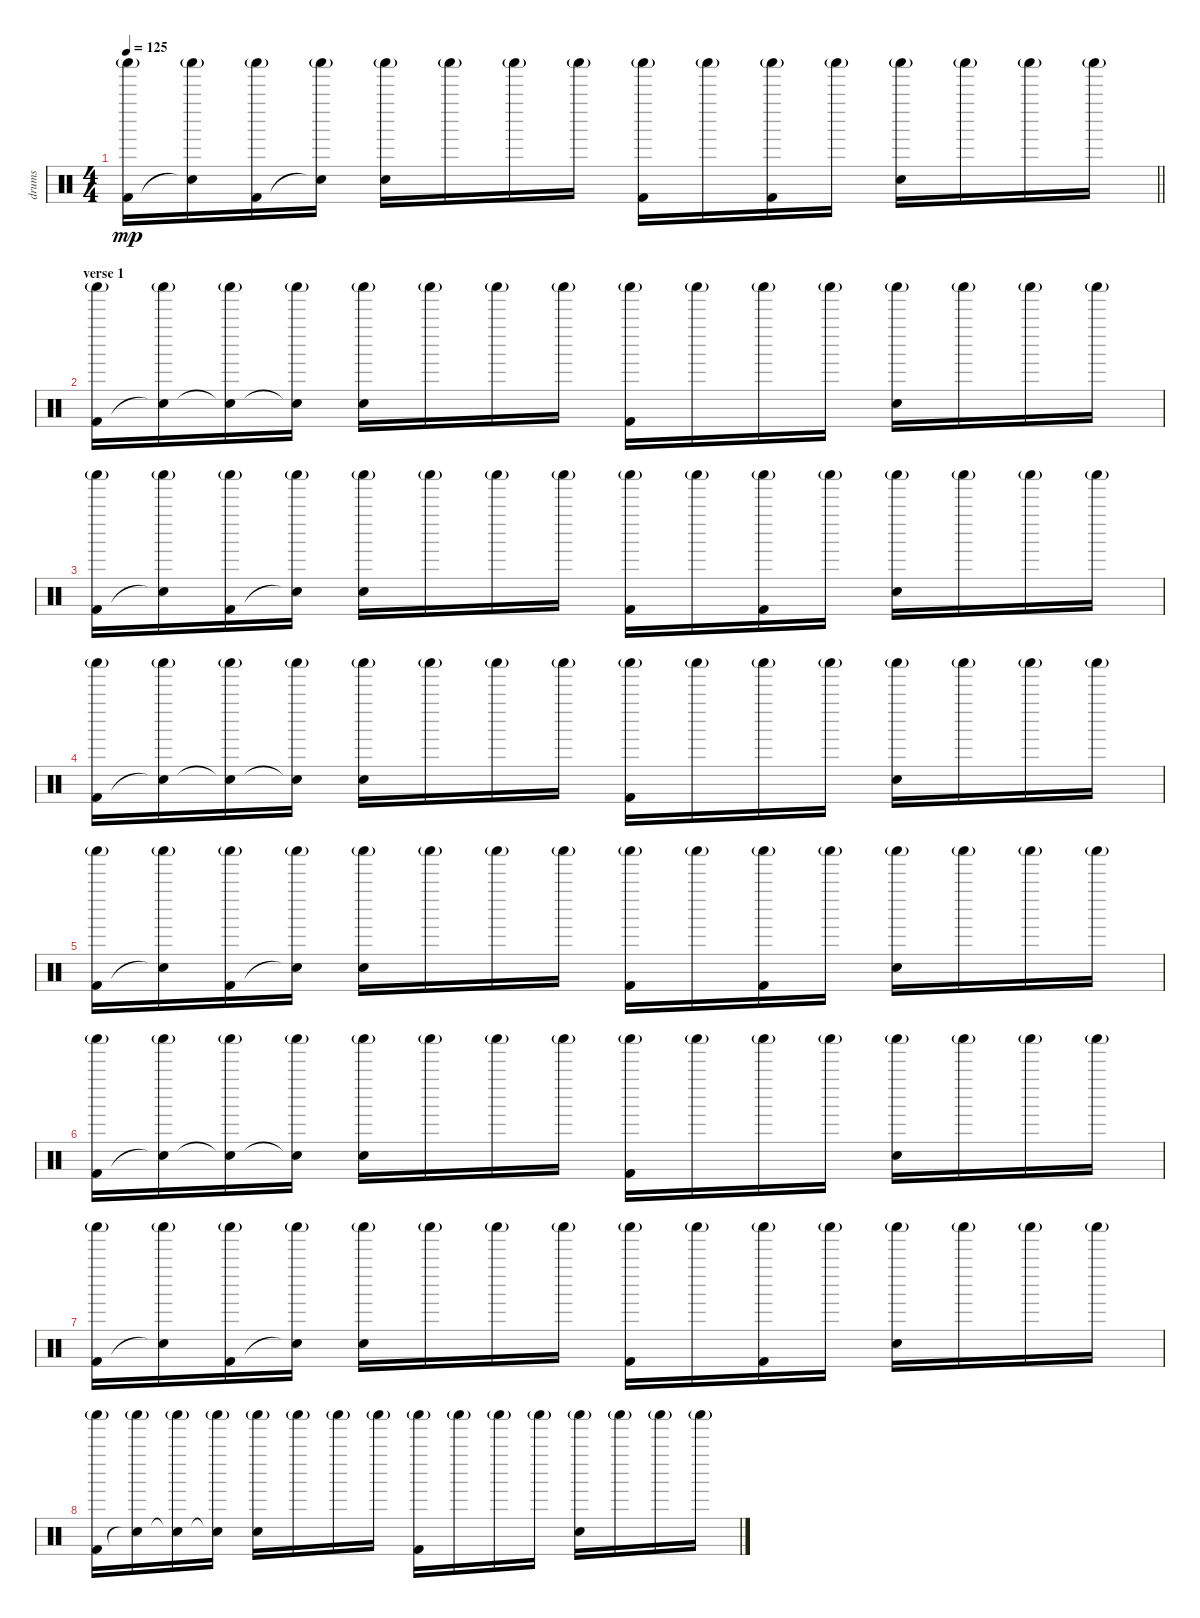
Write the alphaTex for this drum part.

\track ("drums" "drums") {instrument percussion}
\staff {score}
\articulation defaults
\ts (4 4)
\tempo 125
\clef neutral
\barLineRight lightlight
\ks c
("Shaker (hit)"{g} "Kick (hit) 2").16{dy mp} ("Shaker (hit)"{g} "Snare (hit)"{t}).16 ("Shaker (hit)"{g} "Kick (hit) 2").16 ("Shaker (hit)"{g} "Snare (hit)"{t}).16 ("Shaker (hit)"{g} "Snare (hit) 2").16 "Shaker (hit)"{g}.16 "Shaker (hit)"{g}.16 "Shaker (hit)"{g}.16 ("Shaker (hit)"{g} "Kick (hit) 2").16 "Shaker (hit)"{g}.16 ("Shaker (hit)"{g} "Kick (hit) 2").16 "Shaker (hit)"{g}.16 ("Shaker (hit)"{g} "Snare (hit) 2").16 "Shaker (hit)"{g}.16 "Shaker (hit)"{g}.16 "Shaker (hit)"{g}.16 |
\section ("" "verse 1")
("Shaker (hit)"{g} "Kick (hit) 2").16 ("Shaker (hit)"{g} "Snare (hit)"{t}).16 ("Shaker (hit)"{g} "Snare (hit)"{t}).16 ("Shaker (hit)"{g} "Snare (hit)"{t}).16 ("Shaker (hit)"{g} "Snare (hit) 2").16 "Shaker (hit)"{g}.16 "Shaker (hit)"{g}.16 "Shaker (hit)"{g}.16 ("Shaker (hit)"{g} "Kick (hit) 2").16 "Shaker (hit)"{g}.16 "Shaker (hit)"{g}.16 "Shaker (hit)"{g}.16 ("Shaker (hit)"{g} "Snare (hit) 2").16 "Shaker (hit)"{g}.16 "Shaker (hit)"{g}.16 "Shaker (hit)"{g}.16 |
("Shaker (hit)"{g} "Kick (hit) 2").16 ("Shaker (hit)"{g} "Snare (hit)"{t}).16 ("Shaker (hit)"{g} "Kick (hit) 2").16 ("Shaker (hit)"{g} "Snare (hit)"{t}).16 ("Shaker (hit)"{g} "Snare (hit) 2").16 "Shaker (hit)"{g}.16 "Shaker (hit)"{g}.16 "Shaker (hit)"{g}.16 ("Shaker (hit)"{g} "Kick (hit) 2").16 "Shaker (hit)"{g}.16 ("Shaker (hit)"{g} "Kick (hit) 2").16 "Shaker (hit)"{g}.16 ("Shaker (hit)"{g} "Snare (hit) 2").16 "Shaker (hit)"{g}.16 "Shaker (hit)"{g}.16 "Shaker (hit)"{g}.16 |
("Shaker (hit)"{g} "Kick (hit) 2").16 ("Shaker (hit)"{g} "Snare (hit)"{t}).16 ("Shaker (hit)"{g} "Snare (hit)"{t}).16 ("Shaker (hit)"{g} "Snare (hit)"{t}).16 ("Shaker (hit)"{g} "Snare (hit) 2").16 "Shaker (hit)"{g}.16 "Shaker (hit)"{g}.16 "Shaker (hit)"{g}.16 ("Shaker (hit)"{g} "Kick (hit) 2").16 "Shaker (hit)"{g}.16 "Shaker (hit)"{g}.16 "Shaker (hit)"{g}.16 ("Shaker (hit)"{g} "Snare (hit) 2").16 "Shaker (hit)"{g}.16 "Shaker (hit)"{g}.16 "Shaker (hit)"{g}.16 |
("Shaker (hit)"{g} "Kick (hit) 2").16 ("Shaker (hit)"{g} "Snare (hit)"{t}).16 ("Shaker (hit)"{g} "Kick (hit) 2").16 ("Shaker (hit)"{g} "Snare (hit)"{t}).16 ("Shaker (hit)"{g} "Snare (hit) 2").16 "Shaker (hit)"{g}.16 "Shaker (hit)"{g}.16 "Shaker (hit)"{g}.16 ("Shaker (hit)"{g} "Kick (hit) 2").16 "Shaker (hit)"{g}.16 ("Shaker (hit)"{g} "Kick (hit) 2").16 "Shaker (hit)"{g}.16 ("Shaker (hit)"{g} "Snare (hit) 2").16 "Shaker (hit)"{g}.16 "Shaker (hit)"{g}.16 "Shaker (hit)"{g}.16 |
("Shaker (hit)"{g} "Kick (hit) 2").16 ("Shaker (hit)"{g} "Snare (hit)"{t}).16 ("Shaker (hit)"{g} "Snare (hit)"{t}).16 ("Shaker (hit)"{g} "Snare (hit)"{t}).16 ("Shaker (hit)"{g} "Snare (hit) 2").16 "Shaker (hit)"{g}.16 "Shaker (hit)"{g}.16 "Shaker (hit)"{g}.16 ("Shaker (hit)"{g} "Kick (hit) 2").16 "Shaker (hit)"{g}.16 "Shaker (hit)"{g}.16 "Shaker (hit)"{g}.16 ("Shaker (hit)"{g} "Snare (hit) 2").16 "Shaker (hit)"{g}.16 "Shaker (hit)"{g}.16 "Shaker (hit)"{g}.16 |
("Shaker (hit)"{g} "Kick (hit) 2").16 ("Shaker (hit)"{g} "Snare (hit)"{t}).16 ("Shaker (hit)"{g} "Kick (hit) 2").16 ("Shaker (hit)"{g} "Snare (hit)"{t}).16 ("Shaker (hit)"{g} "Snare (hit) 2").16 "Shaker (hit)"{g}.16 "Shaker (hit)"{g}.16 "Shaker (hit)"{g}.16 ("Shaker (hit)"{g} "Kick (hit) 2").16 "Shaker (hit)"{g}.16 ("Shaker (hit)"{g} "Kick (hit) 2").16 "Shaker (hit)"{g}.16 ("Shaker (hit)"{g} "Snare (hit) 2").16 "Shaker (hit)"{g}.16 "Shaker (hit)"{g}.16 "Shaker (hit)"{g}.16 |
("Shaker (hit)"{g} "Kick (hit) 2").16 ("Shaker (hit)"{g} "Snare (hit)"{t}).16 ("Shaker (hit)"{g} "Snare (hit)"{t}).16 ("Shaker (hit)"{g} "Snare (hit)"{t}).16 ("Shaker (hit)"{g} "Snare (hit) 2").16 "Shaker (hit)"{g}.16 "Shaker (hit)"{g}.16 "Shaker (hit)"{g}.16 ("Shaker (hit)"{g} "Kick (hit) 2").16 "Shaker (hit)"{g}.16 "Shaker (hit)"{g}.16 "Shaker (hit)"{g}.16 ("Shaker (hit)"{g} "Snare (hit) 2").16 "Shaker (hit)"{g}.16 "Shaker (hit)"{g}.16 "Shaker (hit)"{g}.16
